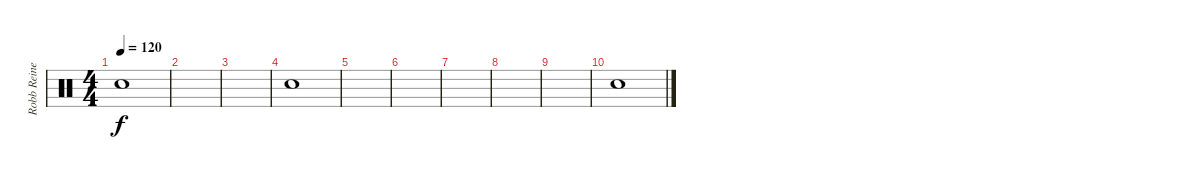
\track ("Robb Reiner" "Robb Reine") {instrument percussion}
\staff {score}
\articulation defaults
\ts (4 4)
\tempo 120
\clef neutral
\ks c "Snare (hit)".1{dy f}
|
|
|
"Snare (hit)".1 |
|
|
|
|
|
"Snare (hit)".1
